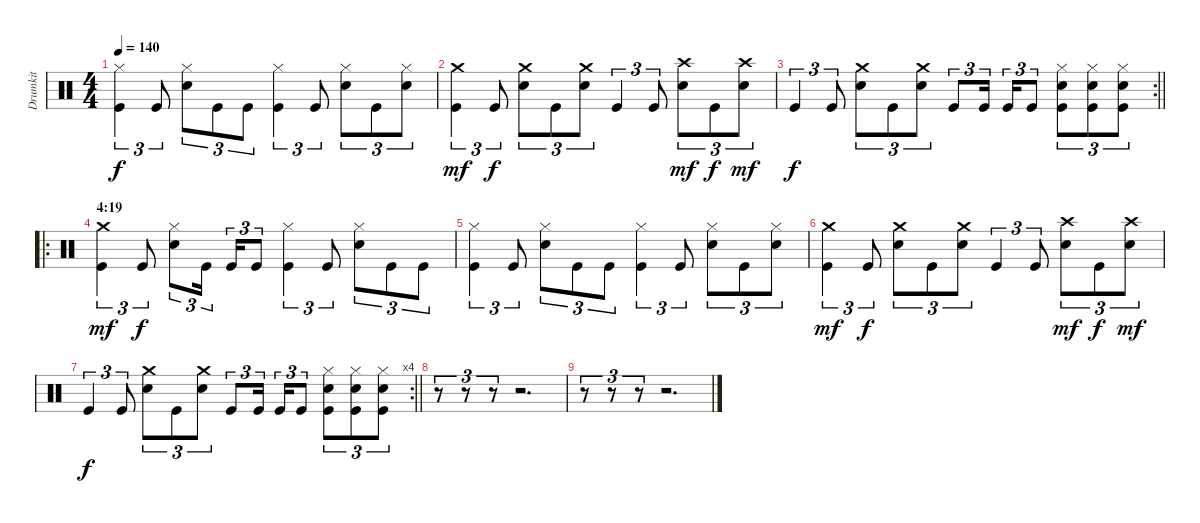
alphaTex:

\track ("Drumkit" "Drumkit") {instrument percussion}
\staff {score}
\articulation defaults
\ts (4 4)
\tempo 140
\clef neutral
\ks c
("Hi-Hat (closed)" "Kick (hit)").4{tu (3 2) dy f} "Kick (hit)".8{tu (3 2)} ("Hi-Hat (closed)" "Snare (hit) 2").8{tu (3 2)} "Kick (hit)".8{tu (3 2)} "Kick (hit)".8{tu (3 2)} ("Hi-Hat (closed)" "Kick (hit)").4{tu (3 2)} "Kick (hit)".8{tu (3 2)} ("Hi-Hat (closed)" "Snare (hit) 2").8{tu (3 2)} "Kick (hit)".8{tu (3 2)} ("Hi-Hat (closed)" "Snare (hit) 2").8{tu (3 2)} |
("Crash medium (hit)" "Kick (hit)").4{tu (3 2) dy mf} "Kick (hit)".8{tu (3 2) dy f} ("Crash medium (hit)" "Snare (hit) 2").8{tu (3 2)} "Kick (hit)".8{tu (3 2)} ("Crash medium (hit)" "Snare (hit) 2").8{tu (3 2)} "Kick (hit)".4{tu (3 2)} "Kick (hit)".8{tu (3 2)} ("Crash high (hit)" "Snare (hit) 2").8{tu (3 2) dy mf} "Kick (hit)".8{tu (3 2) dy f} ("Crash high (hit)" "Snare (hit) 2").8{tu (3 2) dy mf} |
\rc 2
\barLineRight lightlight "Kick (hit)".4{tu (3 2) dy f} "Kick (hit)".8{tu (3 2)}
("Crash medium (hit)" "Snare (hit) 2").8{tu (3 2)} "Kick (hit)".8{tu (3 2)} ("Crash medium (hit)" "Snare (hit) 2").8{tu (3 2)} "Kick (hit)".8{tu (3 2)} "Kick (hit)".16{tu (3 2) beam splitsecondary} "Kick (hit)".16{tu (3 2)} "Kick (hit)".8{tu (3 2)} ("Hi-Hat (closed)" "Snare (hit) 2" "Kick (hit)").8{tu (3 2)} ("Hi-Hat (closed)" "Snare (hit) 2" "Kick (hit)").8{tu (3 2)} ("Hi-Hat (closed)" "Snare (hit) 2" "Kick (hit)").8{tu (3 2)} |
\ro
\section ("" "4:19")
("Crash medium (hit)" "Kick (hit)").4{tu (3 2) dy mf} "Kick (hit)".8{tu (3 2) dy f} ("Hi-Hat (closed)" "Snare (hit) 2").8{tu (3 2)} "Kick (hit)".16{tu (3 2) beam splitsecondary} "Kick (hit)".16{tu (3 2)} "Kick (hit)".8{tu (3 2)} ("Hi-Hat (closed)" "Kick (hit)").4{tu (3 2)} "Kick (hit)".8{tu (3 2)} ("Hi-Hat (closed)" "Snare (hit) 2").8{tu (3 2)} "Kick (hit)".8{tu (3 2)} "Kick (hit)".8{tu (3 2)} |
("Hi-Hat (closed)" "Kick (hit)").4{tu (3 2)} "Kick (hit)".8{tu (3 2)} ("Hi-Hat (closed)" "Snare (hit) 2").8{tu (3 2)} "Kick (hit)".8{tu (3 2)} "Kick (hit)".8{tu (3 2)} ("Hi-Hat (closed)" "Kick (hit)").4{tu (3 2)} "Kick (hit)".8{tu (3 2)} ("Hi-Hat (closed)" "Snare (hit) 2").8{tu (3 2)} "Kick (hit)".8{tu (3 2)} ("Hi-Hat (closed)" "Snare (hit) 2").8{tu (3 2)} |
("Crash medium (hit)" "Kick (hit)").4{tu (3 2) dy mf} "Kick (hit)".8{tu (3 2) dy f} ("Crash medium (hit)" "Snare (hit) 2").8{tu (3 2)} "Kick (hit)".8{tu (3 2)} ("Crash medium (hit)" "Snare (hit) 2").8{tu (3 2)} "Kick (hit)".4{tu (3 2)} "Kick (hit)".8{tu (3 2)} ("Crash high (hit)" "Snare (hit) 2").8{tu (3 2) dy mf} "Kick (hit)".8{tu (3 2) dy f} ("Crash high (hit)" "Snare (hit) 2").8{tu (3 2) dy mf} |
\rc 4
\barLineRight lightlight "Kick (hit)".4{tu (3 2) dy f} "Kick (hit)".8{tu (3 2)}
("Crash medium (hit)" "Snare (hit) 2").8{tu (3 2)} "Kick (hit)".8{tu (3 2)} ("Crash medium (hit)" "Snare (hit) 2").8{tu (3 2)} "Kick (hit)".8{tu (3 2)} "Kick (hit)".16{tu (3 2) beam splitsecondary} "Kick (hit)".16{tu (3 2)} "Kick (hit)".8{tu (3 2)} ("Hi-Hat (closed)" "Snare (hit) 2" "Kick (hit)").8{tu (3 2)} ("Hi-Hat (closed)" "Snare (hit) 2" "Kick (hit)").8{tu (3 2)} ("Hi-Hat (closed)" "Snare (hit) 2" "Kick (hit)").8{tu (3 2)} |
r.8{tu (3 2)} r.8{tu (3 2)} r.8{tu (3 2)} r.2{d} |
r.8{tu (3 2)} r.8{tu (3 2)} r.8{tu (3 2)} r.2{d}
